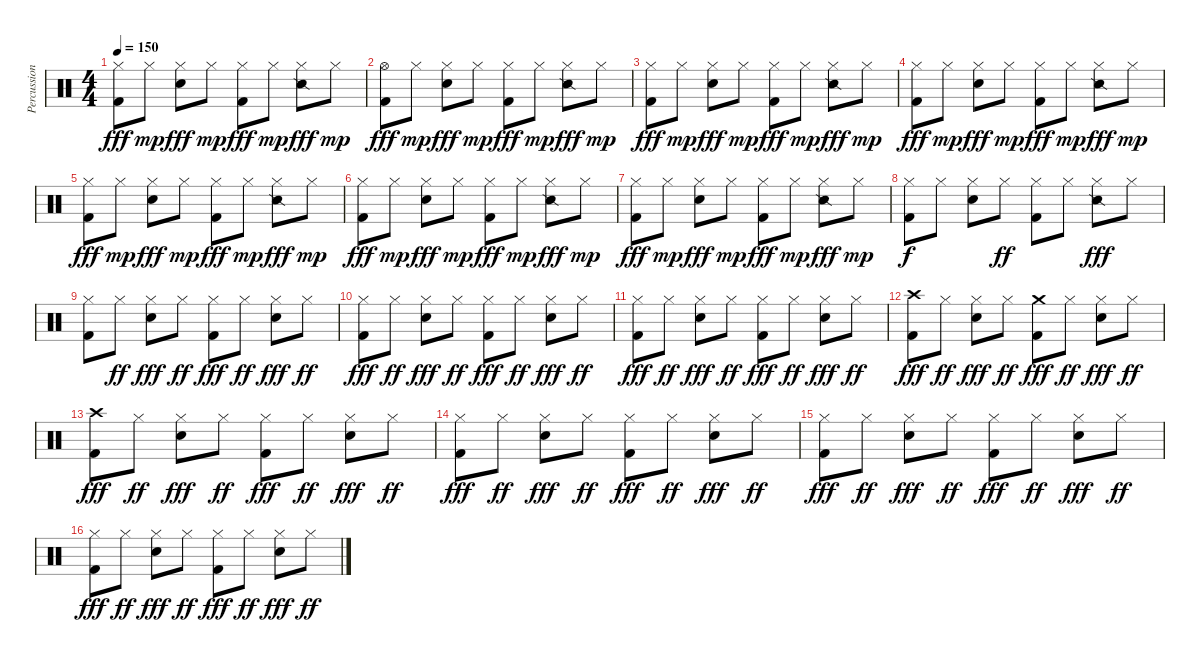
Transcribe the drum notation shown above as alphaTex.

\track ("Percussion" "Percussion") {instrument percussion}
\staff {score}
\articulation defaults
\ts (4 4)
\tempo 150
\clef neutral
\ks c
("Hi-Hat (closed)" "Kick (hit) 2").8{dy fff} "Hi-Hat (closed)".8{dy mp} ("Hi-Hat (closed)" "Snare (hit) 2").8{dy fff} "Hi-Hat (closed)".8{dy mp} ("Hi-Hat (closed)" "Kick (hit) 2").8{dy fff} "Hi-Hat (closed)".8{dy mp} ("Hi-Hat (closed)" "Snare (side stick) 2").8{dy fff} "Hi-Hat (closed)".8{dy mp} |
("Hi-Hat (open)" "Kick (hit) 2").8{dy fff} "Hi-Hat (closed)".8{dy mp} ("Hi-Hat (closed)" "Snare (hit) 2").8{dy fff} "Hi-Hat (closed)".8{dy mp} ("Hi-Hat (closed)" "Kick (hit) 2").8{dy fff} "Hi-Hat (closed)".8{dy mp} ("Hi-Hat (closed)" "Snare (side stick) 2").8{dy fff} "Hi-Hat (closed)".8{dy mp} |
("Hi-Hat (closed)" "Kick (hit) 2").8{dy fff} "Hi-Hat (closed)".8{dy mp} ("Hi-Hat (closed)" "Snare (hit) 2").8{dy fff} "Hi-Hat (closed)".8{dy mp} ("Hi-Hat (closed)" "Kick (hit) 2").8{dy fff} "Hi-Hat (closed)".8{dy mp} ("Hi-Hat (closed)" "Snare (side stick) 2").8{dy fff} "Hi-Hat (closed)".8{dy mp} |
("Hi-Hat (closed)" "Kick (hit) 2").8{dy fff} "Hi-Hat (closed)".8{dy mp} ("Hi-Hat (closed)" "Snare (hit) 2").8{dy fff} "Hi-Hat (closed)".8{dy mp} ("Hi-Hat (closed)" "Kick (hit) 2").8{dy fff} "Hi-Hat (closed)".8{dy mp} ("Hi-Hat (closed)" "Snare (side stick) 2").8{dy fff} "Hi-Hat (closed)".8{dy mp} |
("Hi-Hat (closed)" "Kick (hit) 2").8{dy fff} "Hi-Hat (closed)".8{dy mp} ("Hi-Hat (closed)" "Snare (hit) 2").8{dy fff} "Hi-Hat (closed)".8{dy mp} ("Hi-Hat (closed)" "Kick (hit) 2").8{dy fff} "Hi-Hat (closed)".8{dy mp} ("Hi-Hat (closed)" "Snare (side stick) 2").8{dy fff} "Hi-Hat (closed)".8{dy mp} |
("Hi-Hat (closed)" "Kick (hit) 2").8{dy fff} "Hi-Hat (closed)".8{dy mp} ("Hi-Hat (closed)" "Snare (hit) 2").8{dy fff} "Hi-Hat (closed)".8{dy mp} ("Hi-Hat (closed)" "Kick (hit) 2").8{dy fff} "Hi-Hat (closed)".8{dy mp} ("Hi-Hat (closed)" "Snare (side stick) 2").8{dy fff} "Hi-Hat (closed)".8{dy mp} |
("Hi-Hat (closed)" "Kick (hit) 2").8{dy fff} "Hi-Hat (closed)".8{dy mp} ("Hi-Hat (closed)" "Snare (hit) 2").8{dy fff} "Hi-Hat (closed)".8{dy mp} ("Hi-Hat (closed)" "Kick (hit) 2").8{dy fff} "Hi-Hat (closed)".8{dy mp} ("Hi-Hat (closed)" "Snare (side stick) 2").8{dy fff} "Hi-Hat (closed)".8{dy mp} |
("Hi-Hat (closed)" "Kick (hit) 2").8{dy f} "Hi-Hat (closed)".8 ("Hi-Hat (closed)" "Snare (hit) 2").8 "Hi-Hat (closed)".8{dy ff} ("Hi-Hat (closed)" "Kick (hit) 2").8 "Hi-Hat (closed)".8 ("Hi-Hat (closed)" "Snare (side stick) 2").8{dy fff} "Hi-Hat (closed)".8 |
("Hi-Hat (closed)" "Kick (hit) 2").8 "Hi-Hat (closed)".8{dy ff} ("Hi-Hat (closed)" "Snare (hit) 2").8{dy fff} "Hi-Hat (closed)".8{dy ff} ("Hi-Hat (closed)" "Kick (hit) 2").8{dy fff} "Hi-Hat (closed)".8{dy ff} ("Hi-Hat (closed)" "Snare (hit) 2").8{dy fff} "Hi-Hat (closed)".8{dy ff} |
("Hi-Hat (closed)" "Kick (hit) 2").8{dy fff} "Hi-Hat (closed)".8{dy ff} ("Hi-Hat (closed)" "Snare (hit) 2").8{dy fff} "Hi-Hat (closed)".8{dy ff} ("Hi-Hat (closed)" "Kick (hit) 2").8{dy fff} "Hi-Hat (closed)".8{dy ff} ("Hi-Hat (closed)" "Snare (hit) 2").8{dy fff} "Hi-Hat (closed)".8{dy ff} |
("Hi-Hat (closed)" "Kick (hit) 2").8{dy fff} "Hi-Hat (closed)".8{dy ff} ("Hi-Hat (closed)" "Snare (hit) 2").8{dy fff} "Hi-Hat (closed)".8{dy ff} ("Hi-Hat (closed)" "Kick (hit) 2").8{dy fff} "Hi-Hat (closed)".8{dy ff} ("Hi-Hat (closed)" "Snare (hit) 2").8{dy fff} "Hi-Hat (closed)".8{dy ff} |
("Crash high (hit)" "Kick (hit) 2").8{dy fff} "Hi-Hat (closed)".8{dy ff} ("Hi-Hat (closed)" "Snare (hit) 2").8{dy fff} "Hi-Hat (closed)".8{dy ff} ("Crash medium (hit)" "Kick (hit) 2").8{dy fff} "Hi-Hat (closed)".8{dy ff} ("Hi-Hat (closed)" "Snare (hit) 2").8{dy fff} "Hi-Hat (closed)".8{dy ff} |
("Crash high (hit)" "Kick (hit) 2").8{dy fff} "Hi-Hat (closed)".8{dy ff} ("Hi-Hat (closed)" "Snare (hit) 2").8{dy fff} "Hi-Hat (closed)".8{dy ff} ("Hi-Hat (closed)" "Kick (hit) 2").8{dy fff} "Hi-Hat (closed)".8{dy ff} ("Hi-Hat (closed)" "Snare (hit) 2").8{dy fff} "Hi-Hat (closed)".8{dy ff} |
("Hi-Hat (closed)" "Kick (hit) 2").8{dy fff} "Hi-Hat (closed)".8{dy ff} ("Hi-Hat (closed)" "Snare (hit) 2").8{dy fff} "Hi-Hat (closed)".8{dy ff} ("Hi-Hat (closed)" "Kick (hit) 2").8{dy fff} "Hi-Hat (closed)".8{dy ff} ("Hi-Hat (closed)" "Snare (hit) 2").8{dy fff} "Hi-Hat (closed)".8{dy ff} |
("Hi-Hat (closed)" "Kick (hit) 2").8{dy fff} "Hi-Hat (closed)".8{dy ff} ("Hi-Hat (closed)" "Snare (hit) 2").8{dy fff} "Hi-Hat (closed)".8{dy ff} ("Hi-Hat (closed)" "Kick (hit) 2").8{dy fff} "Hi-Hat (closed)".8{dy ff} ("Hi-Hat (closed)" "Snare (hit) 2").8{dy fff} "Hi-Hat (closed)".8{dy ff} |
("Hi-Hat (closed)" "Kick (hit) 2").8{dy fff} "Hi-Hat (closed)".8{dy ff} ("Hi-Hat (closed)" "Snare (hit) 2").8{dy fff} "Hi-Hat (closed)".8{dy ff} ("Hi-Hat (closed)" "Kick (hit) 2").8{dy fff} "Hi-Hat (closed)".8{dy ff} ("Hi-Hat (closed)" "Snare (hit) 2").8{dy fff} "Hi-Hat (closed)".8{dy ff}
